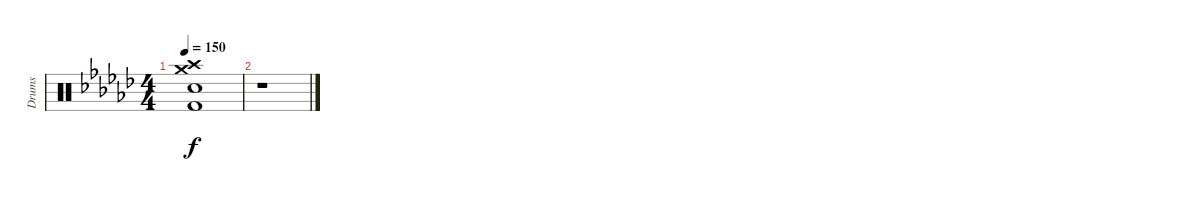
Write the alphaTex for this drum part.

\track ("Drums" "Drums") {instrument percussion}
\staff {score}
\articulation defaults
\ts (4 4)
\tempo 150
\clef neutral
\ks gb
("Crash high (hit)" "Crash medium (hit)" "Kick (hit) 2" "Electric Snare (hit)").1{dy f} |
r.1
